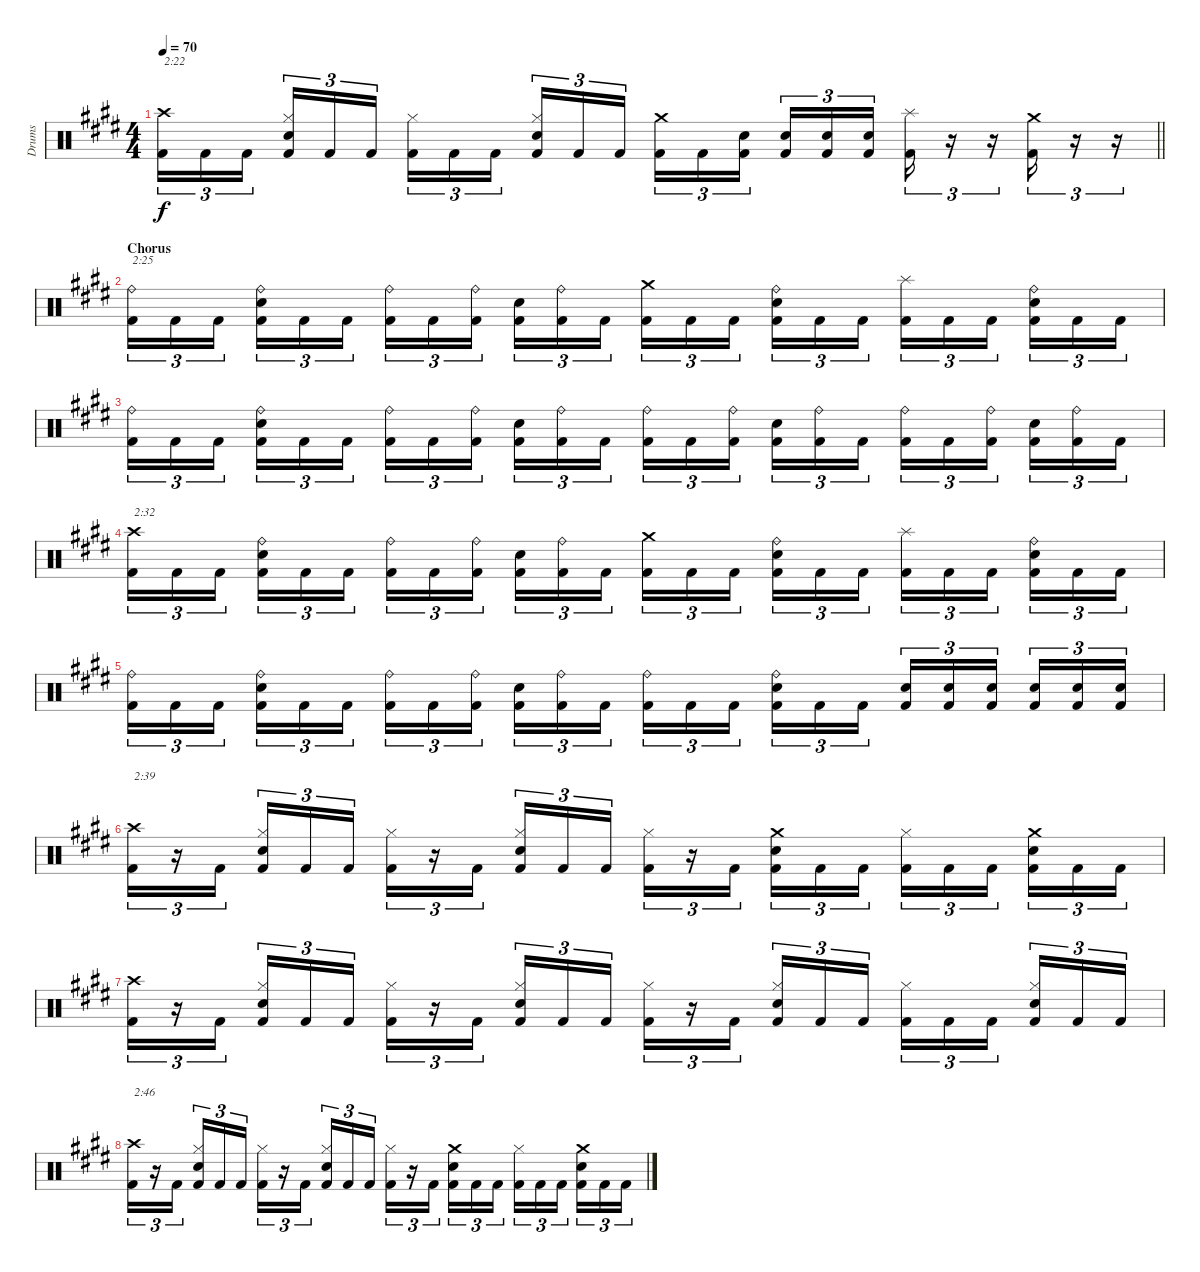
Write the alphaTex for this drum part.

\track ("Drums" "Drums") {instrument percussion}
\staff {score}
\articulation defaults
\ts (4 4)
\tempo 70
\clef neutral
\barLineRight lightlight
\ks c#minor
("Crash high (hit)" "Kick (hit) 2").16{tu (3 2) txt "2:22" dy f} "Kick (hit) 2".16{tu (3 2)} "Kick (hit) 2".16{tu (3 2) beam splitsecondary} ("Hi-Hat (closed)" "Snare (hit) 2" "Kick (hit) 2").16{tu (3 2)} "Kick (hit) 2".16{tu (3 2)} "Kick (hit) 2".16{tu (3 2)} ("Hi-Hat (closed)" "Kick (hit) 2").16{tu (3 2)} "Kick (hit) 2".16{tu (3 2)} "Kick (hit) 2".16{tu (3 2) beam splitsecondary} ("Hi-Hat (closed)" "Snare (hit) 2" "Kick (hit) 2").16{tu (3 2)} "Kick (hit) 2".16{tu (3 2)} "Kick (hit) 2".16{tu (3 2)} ("Crash medium (hit)" "Kick (hit) 2").16{tu (3 2)} "Kick (hit) 2".16{tu (3 2)} ("Snare (hit) 2" "Kick (hit) 2").16{tu (3 2) beam splitsecondary} ("Snare (hit) 2" "Kick (hit) 2").16{tu (3 2)} ("Snare (hit) 2" "Kick (hit) 2").16{tu (3 2)} ("Snare (hit) 2" "Kick (hit) 2").16{tu (3 2)} ("Splash (hit)" "Kick (hit) 2").16{tu (3 2)} r.16{tu (3 2)} r.16{tu (3 2)} ("Crash medium (hit)" "Kick (hit) 2").16{tu (3 2)} r.16{tu (3 2)} r.16{tu (3 2)} |
\section ("" "Chorus")
("Ride (bell)" "Kick (hit) 2").16{tu (3 2) txt "2:25"} "Kick (hit) 2".16{tu (3 2)} "Kick (hit) 2".16{tu (3 2) beam splitsecondary} ("Ride (bell)" "Snare (hit) 2" "Kick (hit) 2").16{tu (3 2)} "Kick (hit) 2".16{tu (3 2)} "Kick (hit) 2".16{tu (3 2)} ("Ride (bell)" "Kick (hit) 2").16{tu (3 2)} "Kick (hit) 2".16{tu (3 2)} ("Ride (bell)" "Kick (hit) 2").16{tu (3 2) beam splitsecondary} ("Snare (hit) 2" "Kick (hit) 2").16{tu (3 2)} ("Ride (bell)" "Kick (hit) 2").16{tu (3 2)} "Kick (hit) 2".16{tu (3 2)} ("Crash medium (hit)" "Kick (hit) 2").16{tu (3 2)} "Kick (hit) 2".16{tu (3 2)} "Kick (hit) 2".16{tu (3 2) beam splitsecondary} ("Ride (bell)" "Snare (hit) 2" "Kick (hit) 2").16{tu (3 2)} "Kick (hit) 2".16{tu (3 2)} "Kick (hit) 2".16{tu (3 2)} ("Splash (hit)" "Kick (hit) 2").16{tu (3 2)} "Kick (hit) 2".16{tu (3 2)} "Kick (hit) 2".16{tu (3 2) beam splitsecondary} ("Ride (bell)" "Snare (hit) 2" "Kick (hit) 2").16{tu (3 2)} "Kick (hit) 2".16{tu (3 2)} "Kick (hit) 2".16{tu (3 2)} |
("Ride (bell)" "Kick (hit) 2").16{tu (3 2)} "Kick (hit) 2".16{tu (3 2)} "Kick (hit) 2".16{tu (3 2) beam splitsecondary} ("Ride (bell)" "Snare (hit) 2" "Kick (hit) 2").16{tu (3 2)} "Kick (hit) 2".16{tu (3 2)} "Kick (hit) 2".16{tu (3 2)} ("Ride (bell)" "Kick (hit) 2").16{tu (3 2)} "Kick (hit) 2".16{tu (3 2)} ("Ride (bell)" "Kick (hit) 2").16{tu (3 2) beam splitsecondary} ("Snare (hit) 2" "Kick (hit) 2").16{tu (3 2)} ("Ride (bell)" "Kick (hit) 2").16{tu (3 2)} "Kick (hit) 2".16{tu (3 2)} ("Ride (bell)" "Kick (hit) 2").16{tu (3 2)} "Kick (hit) 2".16{tu (3 2)} ("Ride (bell)" "Kick (hit) 2").16{tu (3 2) beam splitsecondary} ("Snare (hit) 2" "Kick (hit) 2").16{tu (3 2)} ("Ride (bell)" "Kick (hit) 2").16{tu (3 2)} "Kick (hit) 2".16{tu (3 2)} ("Ride (bell)" "Kick (hit) 2").16{tu (3 2)} "Kick (hit) 2".16{tu (3 2)} ("Ride (bell)" "Kick (hit) 2").16{tu (3 2) beam splitsecondary} ("Snare (hit) 2" "Kick (hit) 2").16{tu (3 2)} ("Ride (bell)" "Kick (hit) 2").16{tu (3 2)} "Kick (hit) 2".16{tu (3 2)} |
("Crash high (hit)" "Kick (hit) 2").16{tu (3 2) txt "2:32"} "Kick (hit) 2".16{tu (3 2)} "Kick (hit) 2".16{tu (3 2) beam splitsecondary} ("Ride (bell)" "Snare (hit) 2" "Kick (hit) 2").16{tu (3 2)} "Kick (hit) 2".16{tu (3 2)} "Kick (hit) 2".16{tu (3 2)} ("Ride (bell)" "Kick (hit) 2").16{tu (3 2)} "Kick (hit) 2".16{tu (3 2)} ("Ride (bell)" "Kick (hit) 2").16{tu (3 2) beam splitsecondary} ("Snare (hit) 2" "Kick (hit) 2").16{tu (3 2)} ("Ride (bell)" "Kick (hit) 2").16{tu (3 2)} "Kick (hit) 2".16{tu (3 2)} ("Crash medium (hit)" "Kick (hit) 2").16{tu (3 2)} "Kick (hit) 2".16{tu (3 2)} "Kick (hit) 2".16{tu (3 2) beam splitsecondary} ("Ride (bell)" "Snare (hit) 2" "Kick (hit) 2").16{tu (3 2)} "Kick (hit) 2".16{tu (3 2)} "Kick (hit) 2".16{tu (3 2)} ("Splash (hit)" "Kick (hit) 2").16{tu (3 2)} "Kick (hit) 2".16{tu (3 2)} "Kick (hit) 2".16{tu (3 2) beam splitsecondary} ("Ride (bell)" "Snare (hit) 2" "Kick (hit) 2").16{tu (3 2)} "Kick (hit) 2".16{tu (3 2)} "Kick (hit) 2".16{tu (3 2)} |
("Ride (bell)" "Kick (hit) 2").16{tu (3 2)} "Kick (hit) 2".16{tu (3 2)} "Kick (hit) 2".16{tu (3 2) beam splitsecondary} ("Ride (bell)" "Snare (hit) 2" "Kick (hit) 2").16{tu (3 2)} "Kick (hit) 2".16{tu (3 2)} "Kick (hit) 2".16{tu (3 2)} ("Ride (bell)" "Kick (hit) 2").16{tu (3 2)} "Kick (hit) 2".16{tu (3 2)} ("Ride (bell)" "Kick (hit) 2").16{tu (3 2) beam splitsecondary} ("Snare (hit) 2" "Kick (hit) 2").16{tu (3 2)} ("Ride (bell)" "Kick (hit) 2").16{tu (3 2)} "Kick (hit) 2".16{tu (3 2)} ("Ride (bell)" "Kick (hit) 2").16{tu (3 2)} "Kick (hit) 2".16{tu (3 2)} "Kick (hit) 2".16{tu (3 2) beam splitsecondary} ("Ride (bell)" "Snare (hit) 2" "Kick (hit) 2").16{tu (3 2)} "Kick (hit) 2".16{tu (3 2)} "Kick (hit) 2".16{tu (3 2)} ("Snare (hit) 2" "Kick (hit) 2").16{tu (3 2)} ("Snare (hit) 2" "Kick (hit) 2").16{tu (3 2)} ("Snare (hit) 2" "Kick (hit) 2").16{tu (3 2) beam splitsecondary} ("Snare (hit) 2" "Kick (hit) 2").16{tu (3 2)} ("Snare (hit) 2" "Kick (hit) 2").16{tu (3 2)} ("Snare (hit) 2" "Kick (hit) 2").16{tu (3 2)} |
("Crash high (hit)" "Kick (hit) 2").16{tu (3 2) txt "2:39"} r.16{tu (3 2)} "Kick (hit) 2".16{tu (3 2) beam splitsecondary} ("Hi-Hat (closed)" "Snare (hit) 2" "Kick (hit) 2").16{tu (3 2)} "Kick (hit) 2".16{tu (3 2)} "Kick (hit) 2".16{tu (3 2)} ("Hi-Hat (closed)" "Kick (hit) 2").16{tu (3 2)} r.16{tu (3 2)} "Kick (hit) 2".16{tu (3 2) beam splitsecondary} ("Hi-Hat (closed)" "Snare (hit) 2" "Kick (hit) 2").16{tu (3 2)} "Kick (hit) 2".16{tu (3 2)} "Kick (hit) 2".16{tu (3 2)} ("Hi-Hat (closed)" "Kick (hit) 2").16{tu (3 2)} r.16{tu (3 2)} "Kick (hit) 2".16{tu (3 2) beam splitsecondary} ("Crash medium (hit)" "Snare (hit) 2" "Kick (hit) 2").16{tu (3 2)} "Kick (hit) 2".16{tu (3 2)} "Kick (hit) 2".16{tu (3 2)} ("Hi-Hat (closed)" "Kick (hit) 2").16{tu (3 2)} "Kick (hit) 2".16{tu (3 2)} "Kick (hit) 2".16{tu (3 2) beam splitsecondary} ("Crash medium (hit)" "Snare (hit) 2" "Kick (hit) 2").16{tu (3 2)} "Kick (hit) 2".16{tu (3 2)} "Kick (hit) 2".16{tu (3 2)} |
("Crash high (hit)" "Kick (hit) 2").16{tu (3 2)} r.16{tu (3 2)} "Kick (hit) 2".16{tu (3 2) beam splitsecondary} ("Hi-Hat (closed)" "Snare (hit) 2" "Kick (hit) 2").16{tu (3 2)} "Kick (hit) 2".16{tu (3 2)} "Kick (hit) 2".16{tu (3 2)} ("Hi-Hat (closed)" "Kick (hit) 2").16{tu (3 2)} r.16{tu (3 2)} "Kick (hit) 2".16{tu (3 2) beam splitsecondary} ("Hi-Hat (closed)" "Snare (hit) 2" "Kick (hit) 2").16{tu (3 2)} "Kick (hit) 2".16{tu (3 2)} "Kick (hit) 2".16{tu (3 2)} ("Hi-Hat (closed)" "Kick (hit) 2").16{tu (3 2)} r.16{tu (3 2)} "Kick (hit) 2".16{tu (3 2) beam splitsecondary} ("Hi-Hat (closed)" "Snare (hit) 2" "Kick (hit) 2").16{tu (3 2)} "Kick (hit) 2".16{tu (3 2)} "Kick (hit) 2".16{tu (3 2)} ("Hi-Hat (closed)" "Kick (hit) 2").16{tu (3 2)} "Kick (hit) 2".16{tu (3 2)} "Kick (hit) 2".16{tu (3 2) beam splitsecondary} ("Hi-Hat (closed)" "Snare (hit) 2" "Kick (hit) 2").16{tu (3 2)} "Kick (hit) 2".16{tu (3 2)} "Kick (hit) 2".16{tu (3 2)} |
("Crash high (hit)" "Kick (hit) 2").16{tu (3 2) txt "2:46"} r.16{tu (3 2)} "Kick (hit) 2".16{tu (3 2) beam splitsecondary} ("Hi-Hat (closed)" "Snare (hit) 2" "Kick (hit) 2").16{tu (3 2)} "Kick (hit) 2".16{tu (3 2)} "Kick (hit) 2".16{tu (3 2)} ("Hi-Hat (closed)" "Kick (hit) 2").16{tu (3 2)} r.16{tu (3 2)} "Kick (hit) 2".16{tu (3 2) beam splitsecondary} ("Hi-Hat (closed)" "Snare (hit) 2" "Kick (hit) 2").16{tu (3 2)} "Kick (hit) 2".16{tu (3 2)} "Kick (hit) 2".16{tu (3 2)} ("Hi-Hat (closed)" "Kick (hit) 2").16{tu (3 2)} r.16{tu (3 2)} "Kick (hit) 2".16{tu (3 2) beam splitsecondary} ("Crash medium (hit)" "Snare (hit) 2" "Kick (hit) 2").16{tu (3 2)} "Kick (hit) 2".16{tu (3 2)} "Kick (hit) 2".16{tu (3 2)} ("Hi-Hat (closed)" "Kick (hit) 2").16{tu (3 2)} "Kick (hit) 2".16{tu (3 2)} "Kick (hit) 2".16{tu (3 2) beam splitsecondary} ("Crash medium (hit)" "Snare (hit) 2" "Kick (hit) 2").16{tu (3 2)} "Kick (hit) 2".16{tu (3 2)} "Kick (hit) 2".16{tu (3 2)}
